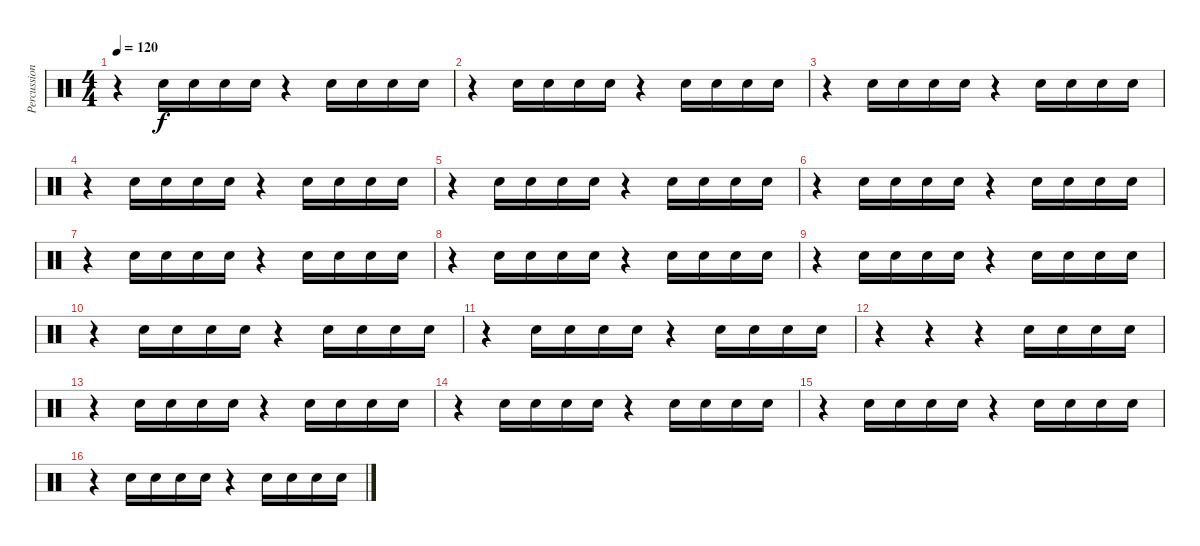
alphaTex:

\track ("Percussion" "Percussion") {instrument percussion}
\staff {score}
\articulation defaults
\ts (4 4)
\tempo 120
\clef neutral
\ks c
r.4{dy f} "Hand Clap (hit)".16 "Hand Clap (hit)".16 "Hand Clap (hit)".16 "Hand Clap (hit)".16 r.4 "Hand Clap (hit)".16 "Hand Clap (hit)".16 "Hand Clap (hit)".16 "Hand Clap (hit)".16 |
r.4 "Hand Clap (hit)".16 "Hand Clap (hit)".16 "Hand Clap (hit)".16 "Hand Clap (hit)".16 r.4 "Hand Clap (hit)".16 "Hand Clap (hit)".16 "Hand Clap (hit)".16 "Hand Clap (hit)".16 |
r.4 "Hand Clap (hit)".16 "Hand Clap (hit)".16 "Hand Clap (hit)".16 "Hand Clap (hit)".16 r.4 "Hand Clap (hit)".16 "Hand Clap (hit)".16 "Hand Clap (hit)".16 "Hand Clap (hit)".16 |
r.4 "Hand Clap (hit)".16 "Hand Clap (hit)".16 "Hand Clap (hit)".16 "Hand Clap (hit)".16 r.4 "Hand Clap (hit)".16 "Hand Clap (hit)".16 "Hand Clap (hit)".16 "Hand Clap (hit)".16 |
r.4 "Hand Clap (hit)".16 "Hand Clap (hit)".16 "Hand Clap (hit)".16 "Hand Clap (hit)".16 r.4 "Hand Clap (hit)".16 "Hand Clap (hit)".16 "Hand Clap (hit)".16 "Hand Clap (hit)".16 |
r.4 "Hand Clap (hit)".16 "Hand Clap (hit)".16 "Hand Clap (hit)".16 "Hand Clap (hit)".16 r.4 "Hand Clap (hit)".16 "Hand Clap (hit)".16 "Hand Clap (hit)".16 "Hand Clap (hit)".16 |
r.4 "Hand Clap (hit)".16 "Hand Clap (hit)".16 "Hand Clap (hit)".16 "Hand Clap (hit)".16 r.4 "Hand Clap (hit)".16 "Hand Clap (hit)".16 "Hand Clap (hit)".16 "Hand Clap (hit)".16 |
r.4 "Hand Clap (hit)".16 "Hand Clap (hit)".16 "Hand Clap (hit)".16 "Hand Clap (hit)".16 r.4 "Hand Clap (hit)".16 "Hand Clap (hit)".16 "Hand Clap (hit)".16 "Hand Clap (hit)".16 |
r.4 "Hand Clap (hit)".16 "Hand Clap (hit)".16 "Hand Clap (hit)".16 "Hand Clap (hit)".16 r.4 "Hand Clap (hit)".16 "Hand Clap (hit)".16 "Hand Clap (hit)".16 "Hand Clap (hit)".16 |
r.4 "Hand Clap (hit)".16 "Hand Clap (hit)".16 "Hand Clap (hit)".16 "Hand Clap (hit)".16 r.4 "Hand Clap (hit)".16 "Hand Clap (hit)".16 "Hand Clap (hit)".16 "Hand Clap (hit)".16 |
r.4 "Hand Clap (hit)".16 "Hand Clap (hit)".16 "Hand Clap (hit)".16 "Hand Clap (hit)".16 r.4 "Hand Clap (hit)".16 "Hand Clap (hit)".16 "Hand Clap (hit)".16 "Hand Clap (hit)".16 |
r.4 r.4 r.4 "Hand Clap (hit)".16 "Hand Clap (hit)".16 "Hand Clap (hit)".16 "Hand Clap (hit)".16 |
r.4 "Hand Clap (hit)".16 "Hand Clap (hit)".16 "Hand Clap (hit)".16 "Hand Clap (hit)".16 r.4 "Hand Clap (hit)".16 "Hand Clap (hit)".16 "Hand Clap (hit)".16 "Hand Clap (hit)".16 |
r.4 "Hand Clap (hit)".16 "Hand Clap (hit)".16 "Hand Clap (hit)".16 "Hand Clap (hit)".16 r.4 "Hand Clap (hit)".16 "Hand Clap (hit)".16 "Hand Clap (hit)".16 "Hand Clap (hit)".16 |
r.4 "Hand Clap (hit)".16 "Hand Clap (hit)".16 "Hand Clap (hit)".16 "Hand Clap (hit)".16 r.4 "Hand Clap (hit)".16 "Hand Clap (hit)".16 "Hand Clap (hit)".16 "Hand Clap (hit)".16 |
r.4 "Hand Clap (hit)".16 "Hand Clap (hit)".16 "Hand Clap (hit)".16 "Hand Clap (hit)".16 r.4 "Hand Clap (hit)".16 "Hand Clap (hit)".16 "Hand Clap (hit)".16 "Hand Clap (hit)".16
